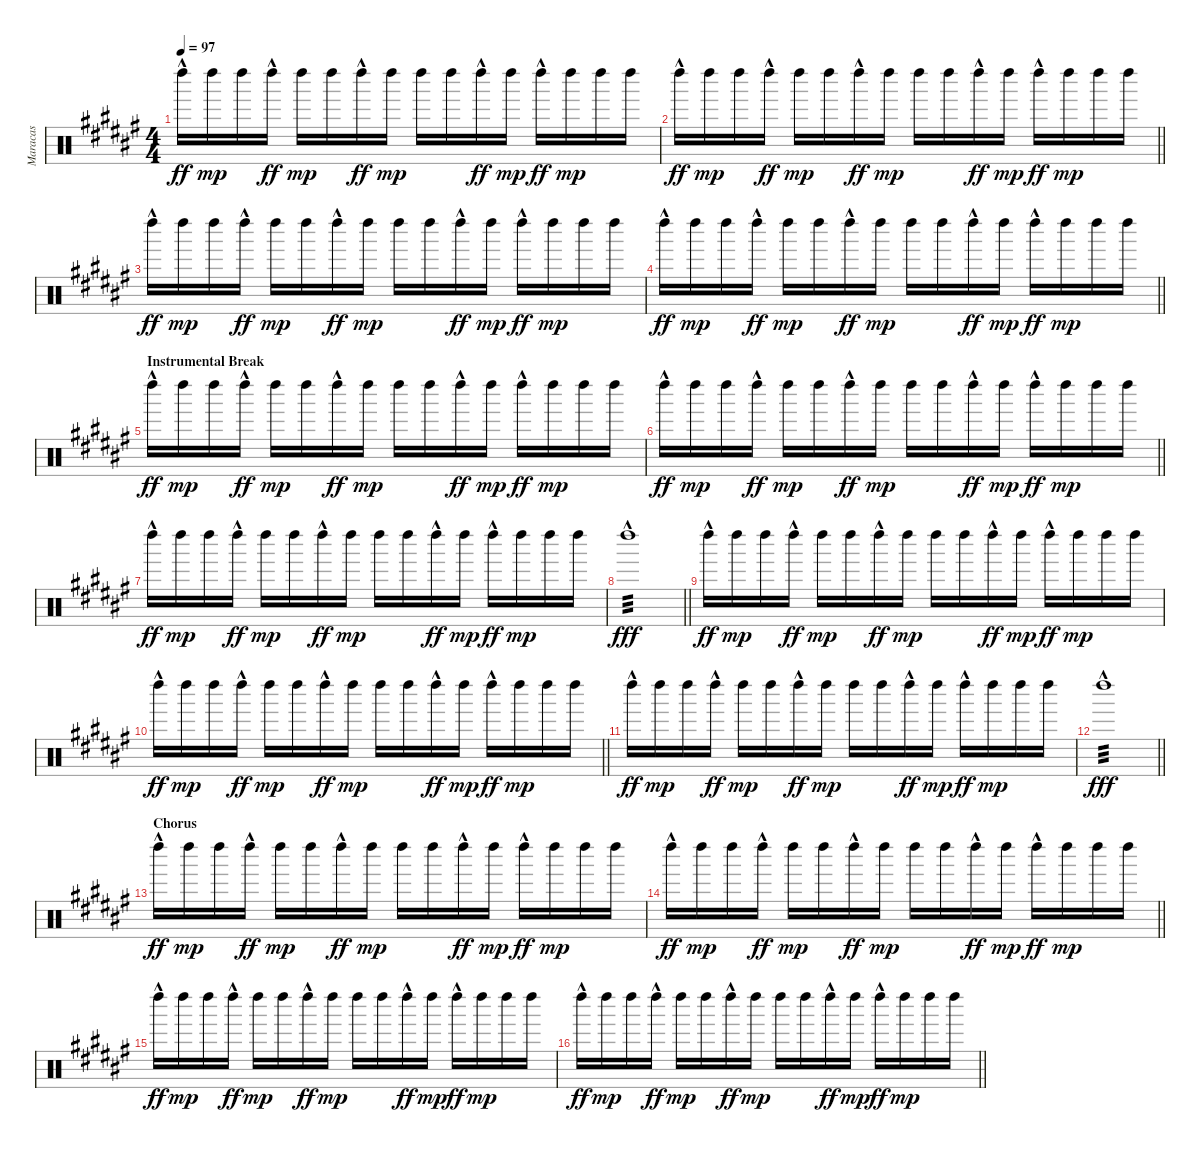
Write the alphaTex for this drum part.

\track ("Maracas" "Maracas") {instrument percussion}
\staff {score}
\articulation defaults
\ts (4 4)
\tempo 97
\clef neutral
\ks f# "Left Maraca (hit)"{hac}.16{dy ff} "Left Maraca (hit)".16{dy mp} "Left Maraca (hit)".16 "Left Maraca (hit)"{hac}.16{dy ff} "Left Maraca (hit)".16{dy mp} "Left Maraca (hit)".16 "Left Maraca (hit)"{hac}.16{dy ff} "Left Maraca (hit)".16{dy mp} "Left Maraca (hit)".16 "Left Maraca (hit)".16 "Left Maraca (hit)"{hac}.16{dy ff} "Left Maraca (hit)".16{dy mp} "Left Maraca (hit)"{hac}.16{dy ff} "Left Maraca (hit)".16{dy mp} "Left Maraca (hit)".16 "Left Maraca (hit)".16
|
\barLineRight lightlight "Left Maraca (hit)"{hac}.16{dy ff} "Left Maraca (hit)".16{dy mp} "Left Maraca (hit)".16 "Left Maraca (hit)"{hac}.16{dy ff} "Left Maraca (hit)".16{dy mp} "Left Maraca (hit)".16 "Left Maraca (hit)"{hac}.16{dy ff} "Left Maraca (hit)".16{dy mp} "Left Maraca (hit)".16 "Left Maraca (hit)".16 "Left Maraca (hit)"{hac}.16{dy ff} "Left Maraca (hit)".16{dy mp} "Left Maraca (hit)"{hac}.16{dy ff} "Left Maraca (hit)".16{dy mp} "Left Maraca (hit)".16 "Left Maraca (hit)".16
|
"Left Maraca (hit)"{hac}.16{dy ff} "Left Maraca (hit)".16{dy mp} "Left Maraca (hit)".16 "Left Maraca (hit)"{hac}.16{dy ff} "Left Maraca (hit)".16{dy mp} "Left Maraca (hit)".16 "Left Maraca (hit)"{hac}.16{dy ff} "Left Maraca (hit)".16{dy mp} "Left Maraca (hit)".16 "Left Maraca (hit)".16 "Left Maraca (hit)"{hac}.16{dy ff} "Left Maraca (hit)".16{dy mp} "Left Maraca (hit)"{hac}.16{dy ff} "Left Maraca (hit)".16{dy mp} "Left Maraca (hit)".16 "Left Maraca (hit)".16 |
\barLineRight lightlight "Left Maraca (hit)"{hac}.16{dy ff} "Left Maraca (hit)".16{dy mp} "Left Maraca (hit)".16 "Left Maraca (hit)"{hac}.16{dy ff} "Left Maraca (hit)".16{dy mp} "Left Maraca (hit)".16 "Left Maraca (hit)"{hac}.16{dy ff} "Left Maraca (hit)".16{dy mp} "Left Maraca (hit)".16 "Left Maraca (hit)".16 "Left Maraca (hit)"{hac}.16{dy ff} "Left Maraca (hit)".16{dy mp} "Left Maraca (hit)"{hac}.16{dy ff} "Left Maraca (hit)".16{dy mp} "Left Maraca (hit)".16 "Left Maraca (hit)".16
|
\section ("" "Instrumental Break")
"Left Maraca (hit)"{hac}.16{dy ff} "Left Maraca (hit)".16{dy mp} "Left Maraca (hit)".16 "Left Maraca (hit)"{hac}.16{dy ff} "Left Maraca (hit)".16{dy mp} "Left Maraca (hit)".16 "Left Maraca (hit)"{hac}.16{dy ff} "Left Maraca (hit)".16{dy mp} "Left Maraca (hit)".16 "Left Maraca (hit)".16 "Left Maraca (hit)"{hac}.16{dy ff} "Left Maraca (hit)".16{dy mp} "Left Maraca (hit)"{hac}.16{dy ff} "Left Maraca (hit)".16{dy mp} "Left Maraca (hit)".16 "Left Maraca (hit)".16 |
\barLineRight lightlight "Left Maraca (hit)"{hac}.16{dy ff} "Left Maraca (hit)".16{dy mp} "Left Maraca (hit)".16 "Left Maraca (hit)"{hac}.16{dy ff} "Left Maraca (hit)".16{dy mp} "Left Maraca (hit)".16 "Left Maraca (hit)"{hac}.16{dy ff} "Left Maraca (hit)".16{dy mp} "Left Maraca (hit)".16 "Left Maraca (hit)".16 "Left Maraca (hit)"{hac}.16{dy ff} "Left Maraca (hit)".16{dy mp} "Left Maraca (hit)"{hac}.16{dy ff} "Left Maraca (hit)".16{dy mp} "Left Maraca (hit)".16 "Left Maraca (hit)".16
|
"Left Maraca (hit)"{hac}.16{dy ff} "Left Maraca (hit)".16{dy mp} "Left Maraca (hit)".16 "Left Maraca (hit)"{hac}.16{dy ff} "Left Maraca (hit)".16{dy mp} "Left Maraca (hit)".16 "Left Maraca (hit)"{hac}.16{dy ff} "Left Maraca (hit)".16{dy mp} "Left Maraca (hit)".16 "Left Maraca (hit)".16 "Left Maraca (hit)"{hac}.16{dy ff} "Left Maraca (hit)".16{dy mp} "Left Maraca (hit)"{hac}.16{dy ff} "Left Maraca (hit)".16{dy mp} "Left Maraca (hit)".16 "Left Maraca (hit)".16 |
\barLineRight lightlight "Left Maraca (hit)"{hac}.1{tp 3 dy fff}
|
"Left Maraca (hit)"{hac}.16{dy ff} "Left Maraca (hit)".16{dy mp} "Left Maraca (hit)".16 "Left Maraca (hit)"{hac}.16{dy ff} "Left Maraca (hit)".16{dy mp} "Left Maraca (hit)".16 "Left Maraca (hit)"{hac}.16{dy ff} "Left Maraca (hit)".16{dy mp} "Left Maraca (hit)".16 "Left Maraca (hit)".16 "Left Maraca (hit)"{hac}.16{dy ff} "Left Maraca (hit)".16{dy mp} "Left Maraca (hit)"{hac}.16{dy ff} "Left Maraca (hit)".16{dy mp} "Left Maraca (hit)".16 "Left Maraca (hit)".16 |
\barLineRight lightlight "Left Maraca (hit)"{hac}.16{dy ff} "Left Maraca (hit)".16{dy mp} "Left Maraca (hit)".16 "Left Maraca (hit)"{hac}.16{dy ff} "Left Maraca (hit)".16{dy mp} "Left Maraca (hit)".16 "Left Maraca (hit)"{hac}.16{dy ff} "Left Maraca (hit)".16{dy mp} "Left Maraca (hit)".16 "Left Maraca (hit)".16 "Left Maraca (hit)"{hac}.16{dy ff} "Left Maraca (hit)".16{dy mp} "Left Maraca (hit)"{hac}.16{dy ff} "Left Maraca (hit)".16{dy mp} "Left Maraca (hit)".16 "Left Maraca (hit)".16
|
"Left Maraca (hit)"{hac}.16{dy ff} "Left Maraca (hit)".16{dy mp} "Left Maraca (hit)".16 "Left Maraca (hit)"{hac}.16{dy ff} "Left Maraca (hit)".16{dy mp} "Left Maraca (hit)".16 "Left Maraca (hit)"{hac}.16{dy ff} "Left Maraca (hit)".16{dy mp} "Left Maraca (hit)".16 "Left Maraca (hit)".16 "Left Maraca (hit)"{hac}.16{dy ff} "Left Maraca (hit)".16{dy mp} "Left Maraca (hit)"{hac}.16{dy ff} "Left Maraca (hit)".16{dy mp} "Left Maraca (hit)".16 "Left Maraca (hit)".16 |
\barLineRight lightlight "Left Maraca (hit)"{hac}.1{tp 3 dy fff}
|
\section ("" "Chorus")
"Left Maraca (hit)"{hac}.16{dy ff} "Left Maraca (hit)".16{dy mp} "Left Maraca (hit)".16 "Left Maraca (hit)"{hac}.16{dy ff} "Left Maraca (hit)".16{dy mp} "Left Maraca (hit)".16 "Left Maraca (hit)"{hac}.16{dy ff} "Left Maraca (hit)".16{dy mp} "Left Maraca (hit)".16 "Left Maraca (hit)".16 "Left Maraca (hit)"{hac}.16{dy ff} "Left Maraca (hit)".16{dy mp} "Left Maraca (hit)"{hac}.16{dy ff} "Left Maraca (hit)".16{dy mp} "Left Maraca (hit)".16 "Left Maraca (hit)".16 |
\barLineRight lightlight "Left Maraca (hit)"{hac}.16{dy ff} "Left Maraca (hit)".16{dy mp} "Left Maraca (hit)".16 "Left Maraca (hit)"{hac}.16{dy ff} "Left Maraca (hit)".16{dy mp} "Left Maraca (hit)".16 "Left Maraca (hit)"{hac}.16{dy ff} "Left Maraca (hit)".16{dy mp} "Left Maraca (hit)".16 "Left Maraca (hit)".16 "Left Maraca (hit)"{hac}.16{dy ff} "Left Maraca (hit)".16{dy mp} "Left Maraca (hit)"{hac}.16{dy ff} "Left Maraca (hit)".16{dy mp} "Left Maraca (hit)".16 "Left Maraca (hit)".16
|
"Left Maraca (hit)"{hac}.16{dy ff} "Left Maraca (hit)".16{dy mp} "Left Maraca (hit)".16 "Left Maraca (hit)"{hac}.16{dy ff} "Left Maraca (hit)".16{dy mp} "Left Maraca (hit)".16 "Left Maraca (hit)"{hac}.16{dy ff} "Left Maraca (hit)".16{dy mp} "Left Maraca (hit)".16 "Left Maraca (hit)".16 "Left Maraca (hit)"{hac}.16{dy ff} "Left Maraca (hit)".16{dy mp} "Left Maraca (hit)"{hac}.16{dy ff} "Left Maraca (hit)".16{dy mp} "Left Maraca (hit)".16 "Left Maraca (hit)".16 |
\barLineRight lightlight "Left Maraca (hit)"{hac}.16{dy ff} "Left Maraca (hit)".16{dy mp} "Left Maraca (hit)".16 "Left Maraca (hit)"{hac}.16{dy ff} "Left Maraca (hit)".16{dy mp} "Left Maraca (hit)".16 "Left Maraca (hit)"{hac}.16{dy ff} "Left Maraca (hit)".16{dy mp} "Left Maraca (hit)".16 "Left Maraca (hit)".16 "Left Maraca (hit)"{hac}.16{dy ff} "Left Maraca (hit)".16{dy mp} "Left Maraca (hit)"{hac}.16{dy ff} "Left Maraca (hit)".16{dy mp} "Left Maraca (hit)".16 "Left Maraca (hit)".16
